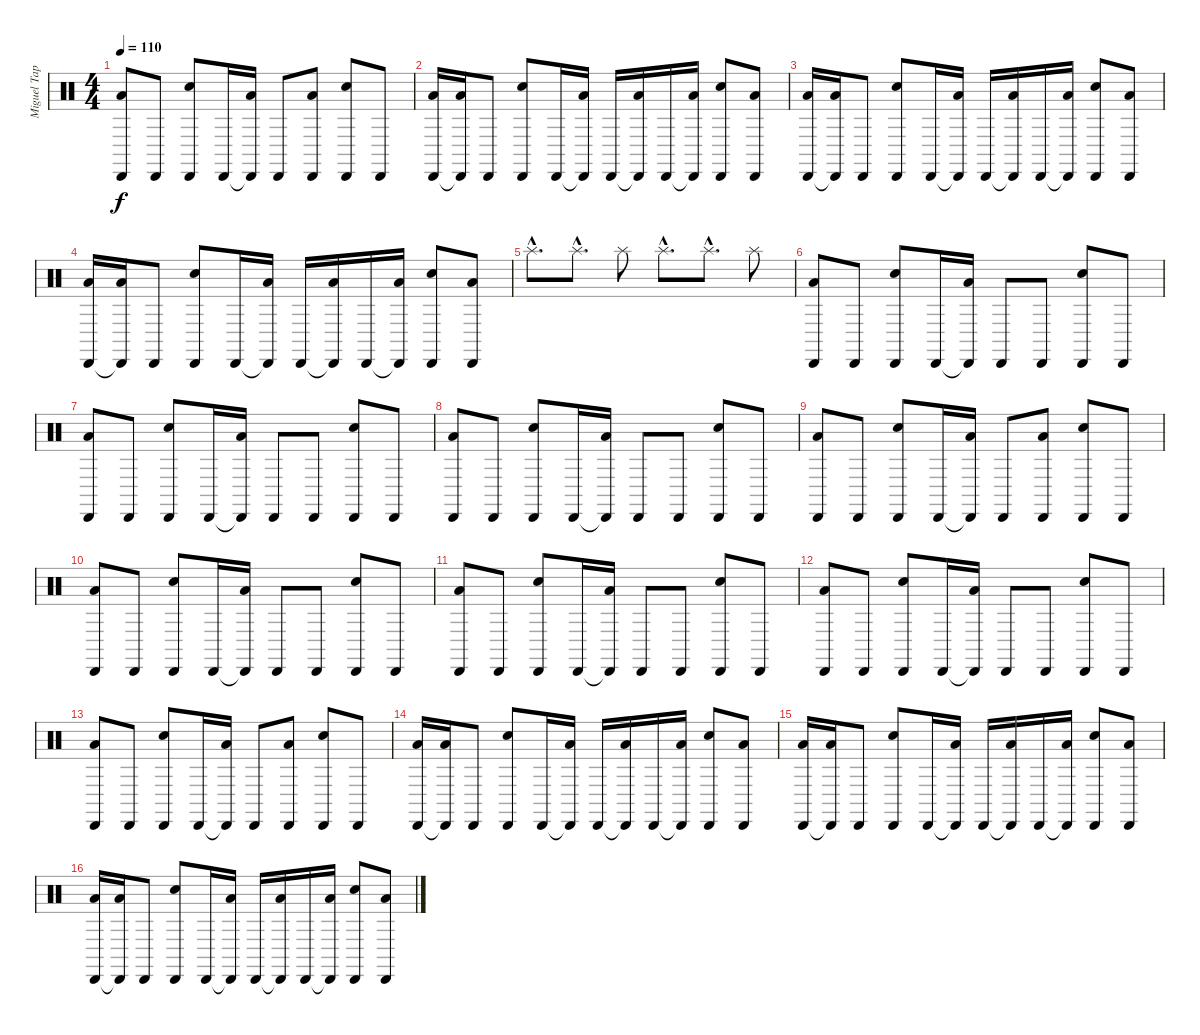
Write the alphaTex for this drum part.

\track ("Miguel Tapia (Bateria)" "Miguel Tap") {instrument percussion}
\staff {score}
\articulation defaults
\ts (4 4)
\tempo 110
\clef neutral
\ks c
("Cabasa (hit)" "Low Tom (hit)").8{dy f} "Cabasa (hit)".8 ("Cabasa (hit)" "Snare (hit) 2").8 "Cabasa (hit)".16 ("Cabasa (hit)"{t} "Low Tom (hit)").16 "Cabasa (hit)".8 ("Cabasa (hit)" "Low Tom (hit)").8 ("Cabasa (hit)" "Snare (hit) 2").8 "Cabasa (hit)".8 |
("Cabasa (hit)" "Low Tom (hit)").16 ("Cabasa (hit)"{t} "Low Tom (hit)").16 "Cabasa (hit)".8 ("Cabasa (hit)" "Snare (hit) 2").8 "Cabasa (hit)".16 ("Cabasa (hit)"{t} "Low Tom (hit)").16 "Cabasa (hit)".16 ("Cabasa (hit)"{t} "Low Tom (hit)").16 "Cabasa (hit)".16 ("Cabasa (hit)"{t} "Low Tom (hit)").16 ("Cabasa (hit)" "Snare (hit) 2").8 ("Cabasa (hit)" "Low Tom (hit)").8 |
("Cabasa (hit)" "Low Tom (hit)").16 ("Cabasa (hit)"{t} "Low Tom (hit)").16 "Cabasa (hit)".8 ("Cabasa (hit)" "Snare (hit) 2").8 "Cabasa (hit)".16 ("Cabasa (hit)"{t} "Low Tom (hit)").16 "Cabasa (hit)".16 ("Cabasa (hit)"{t} "Low Tom (hit)").16 "Cabasa (hit)".16 ("Cabasa (hit)"{t} "Low Tom (hit)").16 ("Cabasa (hit)" "Snare (hit) 2").8 ("Cabasa (hit)" "Low Tom (hit)").8 |
("Cabasa (hit)" "Low Tom (hit)").16 ("Cabasa (hit)"{t} "Low Tom (hit)").16 "Cabasa (hit)".8 ("Cabasa (hit)" "Snare (hit) 2").8 "Cabasa (hit)".16 ("Cabasa (hit)"{t} "Low Tom (hit)").16 "Cabasa (hit)".16 ("Cabasa (hit)"{t} "Low Tom (hit)").16 "Cabasa (hit)".16 ("Cabasa (hit)"{t} "Low Tom (hit)").16 ("Cabasa (hit)" "Snare (hit) 2").8 ("Cabasa (hit)" "Low Tom (hit)").8 |
"Splash (hit)"{hac}.8{d} "Splash (hit)"{hac}.8{d} "Splash (hit)".8 "Splash (hit)"{hac}.8{d} "Splash (hit)"{hac}.8{d} "Splash (hit)".8 |
("Cabasa (hit)" "Low Tom (hit)").8 "Cabasa (hit)".8 ("Cabasa (hit)" "Snare (hit) 2").8 "Cabasa (hit)".16 ("Cabasa (hit)"{t} "Low Tom (hit)").16 "Cabasa (hit)".8 "Cabasa (hit)".8 ("Cabasa (hit)" "Snare (hit) 2").8 "Cabasa (hit)".8 |
("Cabasa (hit)" "Low Tom (hit)").8 "Cabasa (hit)".8 ("Cabasa (hit)" "Snare (hit) 2").8 "Cabasa (hit)".16 ("Cabasa (hit)"{t} "Low Tom (hit)").16 "Cabasa (hit)".8 "Cabasa (hit)".8 ("Cabasa (hit)" "Snare (hit) 2").8 "Cabasa (hit)".8 |
("Cabasa (hit)" "Low Tom (hit)").8 "Cabasa (hit)".8 ("Cabasa (hit)" "Snare (hit) 2").8 "Cabasa (hit)".16 ("Cabasa (hit)"{t} "Low Tom (hit)").16 "Cabasa (hit)".8 "Cabasa (hit)".8 ("Cabasa (hit)" "Snare (hit) 2").8 "Cabasa (hit)".8 |
("Cabasa (hit)" "Low Tom (hit)").8 "Cabasa (hit)".8 ("Cabasa (hit)" "Snare (hit) 2").8 "Cabasa (hit)".16 ("Cabasa (hit)"{t} "Low Tom (hit)").16 "Cabasa (hit)".8 ("Cabasa (hit)" "Low Tom (hit)").8 ("Cabasa (hit)" "Snare (hit) 2").8 "Cabasa (hit)".8 |
("Cabasa (hit)" "Low Tom (hit)").8 "Cabasa (hit)".8 ("Cabasa (hit)" "Snare (hit) 2").8 "Cabasa (hit)".16 ("Cabasa (hit)"{t} "Low Tom (hit)").16 "Cabasa (hit)".8 "Cabasa (hit)".8 ("Cabasa (hit)" "Snare (hit) 2").8 "Cabasa (hit)".8 |
("Cabasa (hit)" "Low Tom (hit)").8 "Cabasa (hit)".8 ("Cabasa (hit)" "Snare (hit) 2").8 "Cabasa (hit)".16 ("Cabasa (hit)"{t} "Low Tom (hit)").16 "Cabasa (hit)".8 "Cabasa (hit)".8 ("Cabasa (hit)" "Snare (hit) 2").8 "Cabasa (hit)".8 |
("Cabasa (hit)" "Low Tom (hit)").8 "Cabasa (hit)".8 ("Cabasa (hit)" "Snare (hit) 2").8 "Cabasa (hit)".16 ("Cabasa (hit)"{t} "Low Tom (hit)").16 "Cabasa (hit)".8 "Cabasa (hit)".8 ("Cabasa (hit)" "Snare (hit) 2").8 "Cabasa (hit)".8 |
("Cabasa (hit)" "Low Tom (hit)").8 "Cabasa (hit)".8 ("Cabasa (hit)" "Snare (hit) 2").8 "Cabasa (hit)".16 ("Cabasa (hit)"{t} "Low Tom (hit)").16 "Cabasa (hit)".8 ("Cabasa (hit)" "Low Tom (hit)").8 ("Cabasa (hit)" "Snare (hit) 2").8 "Cabasa (hit)".8 |
("Cabasa (hit)" "Low Tom (hit)").16 ("Cabasa (hit)"{t} "Low Tom (hit)").16 "Cabasa (hit)".8 ("Cabasa (hit)" "Snare (hit) 2").8 "Cabasa (hit)".16 ("Cabasa (hit)"{t} "Low Tom (hit)").16 "Cabasa (hit)".16 ("Cabasa (hit)"{t} "Low Tom (hit)").16 "Cabasa (hit)".16 ("Cabasa (hit)"{t} "Low Tom (hit)").16 ("Cabasa (hit)" "Snare (hit) 2").8 ("Cabasa (hit)" "Low Tom (hit)").8 |
("Cabasa (hit)" "Low Tom (hit)").16 ("Cabasa (hit)"{t} "Low Tom (hit)").16 "Cabasa (hit)".8 ("Cabasa (hit)" "Snare (hit) 2").8 "Cabasa (hit)".16 ("Cabasa (hit)"{t} "Low Tom (hit)").16 "Cabasa (hit)".16 ("Cabasa (hit)"{t} "Low Tom (hit)").16 "Cabasa (hit)".16 ("Cabasa (hit)"{t} "Low Tom (hit)").16 ("Cabasa (hit)" "Snare (hit) 2").8 ("Cabasa (hit)" "Low Tom (hit)").8 |
("Cabasa (hit)" "Low Tom (hit)").16 ("Cabasa (hit)"{t} "Low Tom (hit)").16 "Cabasa (hit)".8 ("Cabasa (hit)" "Snare (hit) 2").8 "Cabasa (hit)".16 ("Cabasa (hit)"{t} "Low Tom (hit)").16 "Cabasa (hit)".16 ("Cabasa (hit)"{t} "Low Tom (hit)").16 "Cabasa (hit)".16 ("Cabasa (hit)"{t} "Low Tom (hit)").16 ("Cabasa (hit)" "Snare (hit) 2").8 ("Cabasa (hit)" "Low Tom (hit)").8
